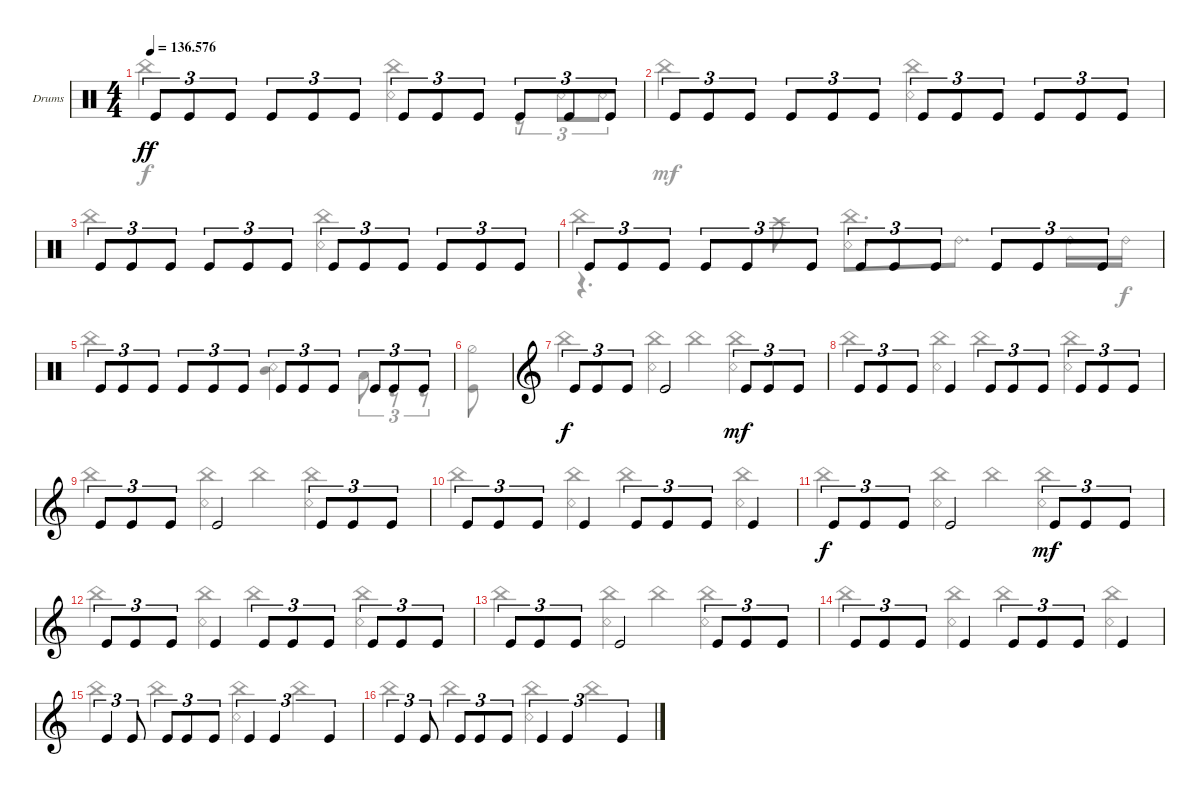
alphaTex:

\bracketExtendMode groupsimilarinstruments
\firstSystemTrackNameOrientation horizontal
\otherSystemsTrackNameOrientation horizontal
\track ("Drumkit" "Drums") {instrument percussion}
\staff {score}
\articulation defaults
\voice
\ts (4 4)
\tempo
136.576
\accidentals auto
\clef neutral
\ottava regular
\simile none
\ks c "Kick (hit)".8{tu (3 2) dy ff} "Kick (hit)".8{tu (3 2)} "Kick (hit)".8{tu (3 2)} "Kick (hit)".8{tu (3 2)} "Kick (hit)".8{tu (3 2)} "Kick (hit)".8{tu (3 2)} "Kick (hit)".8{tu (3 2)} "Kick (hit)".8{tu (3 2)} "Kick (hit)".8{tu (3 2)} "Kick (hit)".8{tu (3 2)} "Kick (hit)".8{tu (3 2)} "Kick (hit)".8{tu (3 2)}
|
"Kick (hit)".8{tu (3 2)} "Kick (hit)".8{tu (3 2)} "Kick (hit)".8{tu (3 2)} "Kick (hit)".8{tu (3 2)} "Kick (hit)".8{tu (3 2)} "Kick (hit)".8{tu (3 2)} "Kick (hit)".8{tu (3 2)} "Kick (hit)".8{tu (3 2)} "Kick (hit)".8{tu (3 2)} "Kick (hit)".8{tu (3 2)} "Kick (hit)".8{tu (3 2)} "Kick (hit)".8{tu (3 2)} |
"Kick (hit)".8{tu (3 2)} "Kick (hit)".8{tu (3 2)} "Kick (hit)".8{tu (3 2)} "Kick (hit)".8{tu (3 2)} "Kick (hit)".8{tu (3 2)} "Kick (hit)".8{tu (3 2)} "Kick (hit)".8{tu (3 2)} "Kick (hit)".8{tu (3 2)} "Kick (hit)".8{tu (3 2)} "Kick (hit)".8{tu (3 2)} "Kick (hit)".8{tu (3 2)} "Kick (hit)".8{tu (3 2)} |
"Kick (hit)".8{tu (3 2)} "Kick (hit)".8{tu (3 2)} "Kick (hit)".8{tu (3 2)} "Kick (hit)".8{tu (3 2)} "Kick (hit)".8{tu (3 2)} "Kick (hit)".8{tu (3 2)} "Kick (hit)".8{tu (3 2)} "Kick (hit)".8{tu (3 2)} "Kick (hit)".8{tu (3 2)} "Kick (hit)".8{tu (3 2)} "Kick (hit)".8{tu (3 2)} "Kick (hit)".8{tu (3 2)} |
"Kick (hit)".8{tu (3 2)} "Kick (hit)".8{tu (3 2)} "Kick (hit)".8{tu (3 2)} "Kick (hit)".8{tu (3 2)} "Kick (hit)".8{tu (3 2)} "Kick (hit)".8{tu (3 2)} "Kick (hit)".8{tu (3 2)} "Kick (hit)".8{tu (3 2)} "Kick (hit)".8{tu (3 2)} "Kick (hit)".8{tu (3 2)} "Kick (hit)".8{tu (3 2)} "Kick (hit)".8{tu (3 2)} |
|
\clef g2 "Kick (hit)".8{tu (3 2) dy f} "Kick (hit)".8{tu (3 2)} "Kick (hit)".8{tu (3 2)} "Kick (hit)".2 "Kick (hit)".8{tu (3 2) dy mf} "Kick (hit)".8{tu (3 2)} "Kick (hit)".8{tu (3 2)}
|
"Kick (hit)".8{tu (3 2)} "Kick (hit)".8{tu (3 2)} "Kick (hit)".8{tu (3 2)} "Kick (hit)".4 "Kick (hit)".8{tu (3 2)} "Kick (hit)".8{tu (3 2)} "Kick (hit)".8{tu (3 2)} "Kick (hit)".8{tu (3 2)} "Kick (hit)".8{tu (3 2)} "Kick (hit)".8{tu (3 2)} |
"Kick (hit)".8{tu (3 2)} "Kick (hit)".8{tu (3 2)} "Kick (hit)".8{tu (3 2)} "Kick (hit)".2 "Kick (hit)".8{tu (3 2)} "Kick (hit)".8{tu (3 2)} "Kick (hit)".8{tu (3 2)} |
"Kick (hit)".8{tu (3 2)} "Kick (hit)".8{tu (3 2)} "Kick (hit)".8{tu (3 2)} "Kick (hit)".4 "Kick (hit)".8{tu (3 2)} "Kick (hit)".8{tu (3 2)} "Kick (hit)".8{tu (3 2)} "Kick (hit)".4 |
"Kick (hit)".8{tu (3 2) dy f} "Kick (hit)".8{tu (3 2)} "Kick (hit)".8{tu (3 2)} "Kick (hit)".2 "Kick (hit)".8{tu (3 2) dy mf} "Kick (hit)".8{tu (3 2)} "Kick (hit)".8{tu (3 2)} |
"Kick (hit)".8{tu (3 2)} "Kick (hit)".8{tu (3 2)} "Kick (hit)".8{tu (3 2)} "Kick (hit)".4 "Kick (hit)".8{tu (3 2)} "Kick (hit)".8{tu (3 2)} "Kick (hit)".8{tu (3 2)} "Kick (hit)".8{tu (3 2)} "Kick (hit)".8{tu (3 2)} "Kick (hit)".8{tu (3 2)} |
"Kick (hit)".8{tu (3 2)} "Kick (hit)".8{tu (3 2)} "Kick (hit)".8{tu (3 2)} "Kick (hit)".2 "Kick (hit)".8{tu (3 2)} "Kick (hit)".8{tu (3 2)} "Kick (hit)".8{tu (3 2)} |
"Kick (hit)".8{tu (3 2)} "Kick (hit)".8{tu (3 2)} "Kick (hit)".8{tu (3 2)} "Kick (hit)".4 "Kick (hit)".8{tu (3 2)} "Kick (hit)".8{tu (3 2)} "Kick (hit)".8{tu (3 2)} "Kick (hit)".4 |
"Kick (hit)".4{tu (3 2)} "Kick (hit)".8{tu (3 2)} "Kick (hit)".8{tu (3 2)} "Kick (hit)".8{tu (3 2)} "Kick (hit)".8{tu (3 2)} "Kick (hit)".4{tu (3 2)} "Kick (hit)".4{tu (3 2)} "Kick (hit)".4{tu (3 2)} |
"Kick (hit)".4{tu (3 2)} "Kick (hit)".8{tu (3 2)} "Kick (hit)".8{tu (3 2)} "Kick (hit)".8{tu (3 2)} "Kick (hit)".8{tu (3 2)} "Kick (hit)".4{tu (3 2)} "Kick (hit)".4{tu (3 2)} "Kick (hit)".4{tu (3 2)}
\voice
\clef neutral
\ottava regular
\simile none
\ks c
|
"China (hit)".2 ("China (hit)" "Snare (rim shot)").2 |
"China (hit)".2 ("China (hit)" "Snare (rim shot)").2 |
"China (hit)".2 ("Snare (rim shot)" "China (hit)").8{d dy mf} "Ride (bell) 2".8{d} "Ride (bell) 2".16 "Ride (bell) 2".16{dy f} |
|
|
\clef g2
|
|
|
|
|
|
|
|
|
\voice
\clef neutral
\ottava regular
\simile none
\ks c "China (hit)".2{dy f}
("China (hit)" "Snare (rim shot)").4 r.8{tu (3 2)} "Snare (rim shot)".8{tu (3 2)} "Snare (rim shot)".8{tu (3 2)} |
|
|
r.4{d} "Crash high (hit)".8 |
"China (hit)".2 ("Mid Tom (hit)" "Snare (rim shot)").4 "Low Tom (hit)".8{tu (3 2)} r.8{tu (3 2)} r.8{tu (3 2)} |
("Hi-Hat (half)" "Kick (hit)").8 |
\clef g2 "China (hit)".4
("China (hit)" "Snare (rim shot)").4 "China (hit)".4 ("China (hit)" "Snare (rim shot)").4 |
"China (hit)".4 ("China (hit)" "Snare (rim shot)").4 "China (hit)".4 ("China (hit)" "Snare (rim shot)").4 |
"China (hit)".4 ("China (hit)" "Snare (rim shot)").4 "China (hit)".4 ("China (hit)" "Snare (rim shot)").4 |
"China (hit)".4 ("China (hit)" "Snare (rim shot)").4 "China (hit)".4 ("China (hit)" "Snare (rim shot)").4 |
"China (hit)".4 ("China (hit)" "Snare (rim shot)").4 "China (hit)".4 ("China (hit)" "Snare (rim shot)").4 |
"China (hit)".4 ("China (hit)" "Snare (rim shot)").4 "China (hit)".4 ("China (hit)" "Snare (rim shot)").4 |
"China (hit)".4 ("China (hit)" "Snare (rim shot)").4 "China (hit)".4 ("China (hit)" "Snare (rim shot)").4 |
"China (hit)".4 ("China (hit)" "Snare (rim shot)").4 "China (hit)".4 ("China (hit)" "Snare (rim shot)").4 |
"China (hit)".4 "China (hit)".4 ("China (hit)" "Snare (rim shot)").4 "China (hit)".4 |
"China (hit)".4 "China (hit)".4 ("China (hit)" "Snare (rim shot)").4 "China (hit)".4
